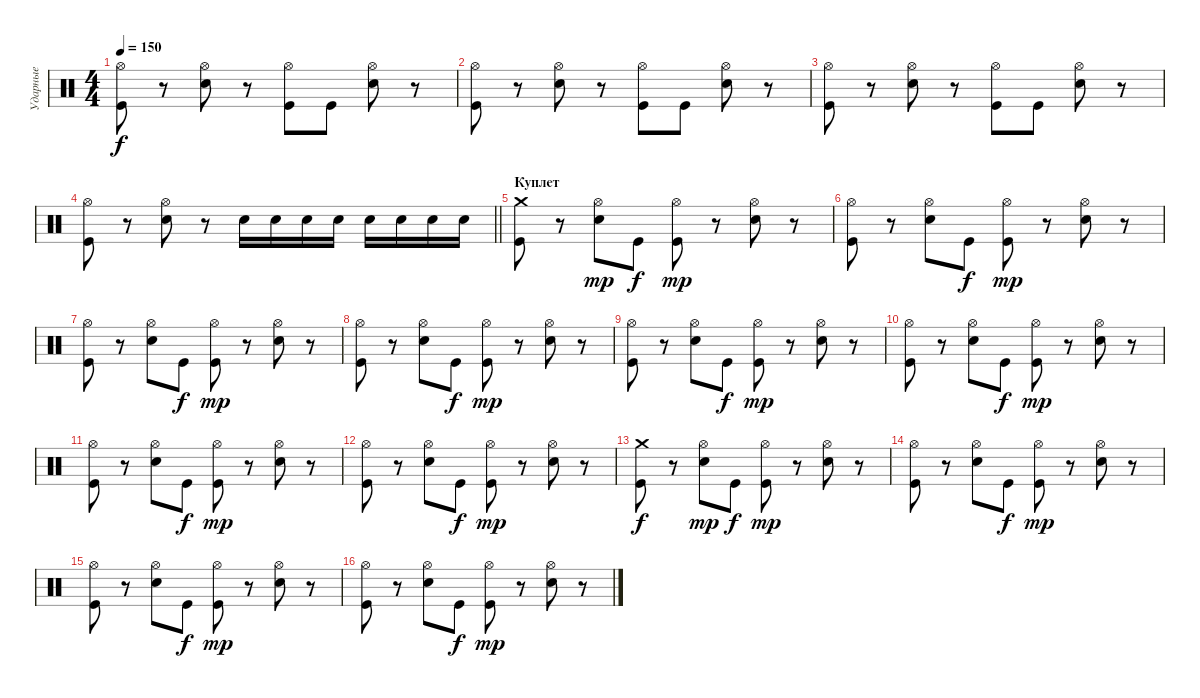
\track ("Ударные" "Ударные") {instrument percussion}
\staff {score}
\articulation defaults
\ts (4 4)
\tempo 150
\clef neutral
\ks c
("Hi-Hat (open)" "Kick (hit)").8{dy f} r.8 ("Hi-Hat (open)" "Electric Snare (hit)").8 r.8 ("Hi-Hat (open)" "Kick (hit)").8 "Kick (hit)".8 ("Hi-Hat (open)" "Electric Snare (hit)").8 r.8 |
("Hi-Hat (open)" "Kick (hit)").8 r.8 ("Hi-Hat (open)" "Electric Snare (hit)").8 r.8 ("Hi-Hat (open)" "Kick (hit)").8 "Kick (hit)".8 ("Hi-Hat (open)" "Electric Snare (hit)").8 r.8 |
("Hi-Hat (open)" "Kick (hit)").8 r.8 ("Hi-Hat (open)" "Electric Snare (hit)").8 r.8 ("Hi-Hat (open)" "Kick (hit)").8 "Kick (hit)".8 ("Hi-Hat (open)" "Electric Snare (hit)").8 r.8 |
\barLineRight lightlight
("Hi-Hat (open)" "Kick (hit)").8 r.8 ("Hi-Hat (open)" "Electric Snare (hit)").8 r.8 "Electric Snare (hit)".16 "Electric Snare (hit)".16 "Electric Snare (hit)".16 "Electric Snare (hit)".16 "Electric Snare (hit)".16 "Electric Snare (hit)".16 "Electric Snare (hit)".16 "Electric Snare (hit)".16 |
\section ("" "Куплет")
("Crash medium (hit)" "Kick (hit)").8 r.8 ("Hi-Hat (open)" "Electric Snare (hit)").8{dy mp} "Kick (hit)".8{dy f} ("Hi-Hat (open)" "Kick (hit)").8{dy mp} r.8 ("Hi-Hat (open)" "Electric Snare (hit)").8 r.8 |
("Hi-Hat (open)" "Kick (hit)").8 r.8 ("Hi-Hat (open)" "Electric Snare (hit)").8 "Kick (hit)".8{dy f} ("Hi-Hat (open)" "Kick (hit)").8{dy mp} r.8 ("Hi-Hat (open)" "Electric Snare (hit)").8 r.8 |
("Hi-Hat (open)" "Kick (hit)").8 r.8 ("Hi-Hat (open)" "Electric Snare (hit)").8 "Kick (hit)".8{dy f} ("Hi-Hat (open)" "Kick (hit)").8{dy mp} r.8 ("Hi-Hat (open)" "Electric Snare (hit)").8 r.8 |
("Hi-Hat (open)" "Kick (hit)").8 r.8 ("Hi-Hat (open)" "Electric Snare (hit)").8 "Kick (hit)".8{dy f} ("Hi-Hat (open)" "Kick (hit)").8{dy mp} r.8 ("Hi-Hat (open)" "Electric Snare (hit)").8 r.8 |
("Hi-Hat (open)" "Kick (hit)").8 r.8 ("Hi-Hat (open)" "Electric Snare (hit)").8 "Kick (hit)".8{dy f} ("Hi-Hat (open)" "Kick (hit)").8{dy mp} r.8 ("Hi-Hat (open)" "Electric Snare (hit)").8 r.8 |
("Hi-Hat (open)" "Kick (hit)").8 r.8 ("Hi-Hat (open)" "Electric Snare (hit)").8 "Kick (hit)".8{dy f} ("Hi-Hat (open)" "Kick (hit)").8{dy mp} r.8 ("Hi-Hat (open)" "Electric Snare (hit)").8 r.8 |
("Hi-Hat (open)" "Kick (hit)").8 r.8 ("Hi-Hat (open)" "Electric Snare (hit)").8 "Kick (hit)".8{dy f} ("Hi-Hat (open)" "Kick (hit)").8{dy mp} r.8 ("Hi-Hat (open)" "Electric Snare (hit)").8 r.8 |
("Hi-Hat (open)" "Kick (hit)").8 r.8 ("Hi-Hat (open)" "Electric Snare (hit)").8 "Kick (hit)".8{dy f} ("Hi-Hat (open)" "Kick (hit)").8{dy mp} r.8 ("Hi-Hat (open)" "Electric Snare (hit)").8 r.8 |
("Crash medium (hit)" "Kick (hit)").8{dy f} r.8 ("Hi-Hat (open)" "Electric Snare (hit)").8{dy mp} "Kick (hit)".8{dy f} ("Hi-Hat (open)" "Kick (hit)").8{dy mp} r.8 ("Hi-Hat (open)" "Electric Snare (hit)").8 r.8 |
("Hi-Hat (open)" "Kick (hit)").8 r.8 ("Hi-Hat (open)" "Electric Snare (hit)").8 "Kick (hit)".8{dy f} ("Hi-Hat (open)" "Kick (hit)").8{dy mp} r.8 ("Hi-Hat (open)" "Electric Snare (hit)").8 r.8 |
("Hi-Hat (open)" "Kick (hit)").8 r.8 ("Hi-Hat (open)" "Electric Snare (hit)").8 "Kick (hit)".8{dy f} ("Hi-Hat (open)" "Kick (hit)").8{dy mp} r.8 ("Hi-Hat (open)" "Electric Snare (hit)").8 r.8 |
("Hi-Hat (open)" "Kick (hit)").8 r.8 ("Hi-Hat (open)" "Electric Snare (hit)").8 "Kick (hit)".8{dy f} ("Hi-Hat (open)" "Kick (hit)").8{dy mp} r.8 ("Hi-Hat (open)" "Electric Snare (hit)").8 r.8
